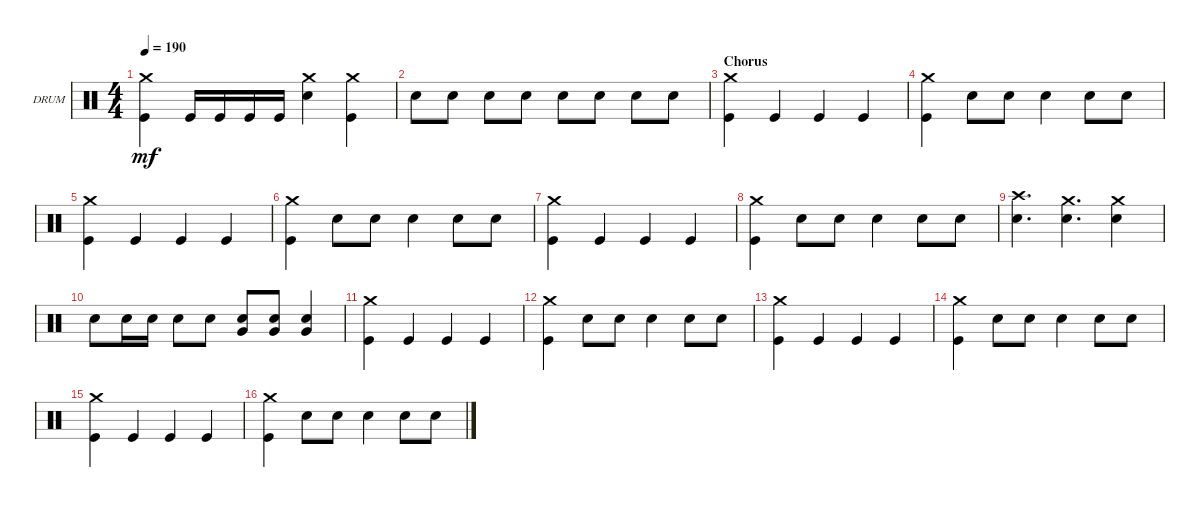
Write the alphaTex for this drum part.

\defaultSystemsLayout 4
\bracketExtendMode groupsimilarinstruments
\firstSystemTrackNameOrientation horizontal
\otherSystemsTrackNameOrientation horizontal
\track ("Drums" "DRUM") {instrument percussion}
\staff {score}
\articulation defaults
\ts (4 4)
\tempo 190
\clef neutral
\ks c
("Crash medium (hit)" "Kick (hit)").4{dy mf} "Kick (hit)".16 "Kick (hit)".16 "Kick (hit)".16 "Kick (hit)".16 ("Crash medium (hit)" "Snare (hit) 2").4 ("Kick (hit)" "Crash medium (hit)").4 |
"Snare (hit) 2".8 "Snare (hit) 2".8 "Snare (hit) 2".8 "Snare (hit) 2".8 "Snare (hit) 2".8 "Snare (hit) 2".8 "Snare (hit) 2".8 "Snare (hit) 2".8 |
\section ("" "Chorus")
("Kick (hit)" "Crash medium (hit)").4 "Kick (hit)".4 "Kick (hit)".4 "Kick (hit)".4 |
("Crash medium (hit)" "Kick (hit)").4 "Snare (hit) 2".8 "Snare (hit) 2".8 "Snare (hit) 2".4 "Snare (hit) 2".8 "Snare (hit) 2".8 |
("Kick (hit)" "Crash medium (hit)").4 "Kick (hit)".4 "Kick (hit)".4 "Kick (hit)".4 |
("Crash medium (hit)" "Kick (hit)").4 "Snare (hit) 2".8 "Snare (hit) 2".8 "Snare (hit) 2".4 "Snare (hit) 2".8 "Snare (hit) 2".8 |
("Kick (hit)" "Crash medium (hit)").4 "Kick (hit)".4 "Kick (hit)".4 "Kick (hit)".4 |
("Crash medium (hit)" "Kick (hit)").4 "Snare (hit) 2".8 "Snare (hit) 2".8 "Snare (hit) 2".4 "Snare (hit) 2".8 "Snare (hit) 2".8 |
("Crash high (hit)" "Snare (hit) 2").4{d} ("Snare (hit) 2" "Crash medium (hit)").4{d} ("Crash medium (hit)" "Snare (hit) 2").4 |
"Snare (hit) 2".8 "Snare (hit) 2".16 "Snare (hit) 2".16 "Snare (hit) 2".8 "Snare (hit) 2".8 ("Snare (hit) 2" "Very Low Tom (hit)").8 ("Snare (hit) 2" "Very Low Tom (hit)").8 ("Snare (hit) 2" "Very Low Tom (hit)").4 |
("Kick (hit)" "Crash medium (hit)").4 "Kick (hit)".4 "Kick (hit)".4 "Kick (hit)".4 |
("Crash medium (hit)" "Kick (hit)").4 "Snare (hit) 2".8 "Snare (hit) 2".8 "Snare (hit) 2".4 "Snare (hit) 2".8 "Snare (hit) 2".8 |
("Kick (hit)" "Crash medium (hit)").4 "Kick (hit)".4 "Kick (hit)".4 "Kick (hit)".4 |
("Crash medium (hit)" "Kick (hit)").4 "Snare (hit) 2".8 "Snare (hit) 2".8 "Snare (hit) 2".4 "Snare (hit) 2".8 "Snare (hit) 2".8 |
("Kick (hit)" "Crash medium (hit)").4 "Kick (hit)".4 "Kick (hit)".4 "Kick (hit)".4 |
("Crash medium (hit)" "Kick (hit)").4 "Snare (hit) 2".8 "Snare (hit) 2".8 "Snare (hit) 2".4 "Snare (hit) 2".8 "Snare (hit) 2".8
